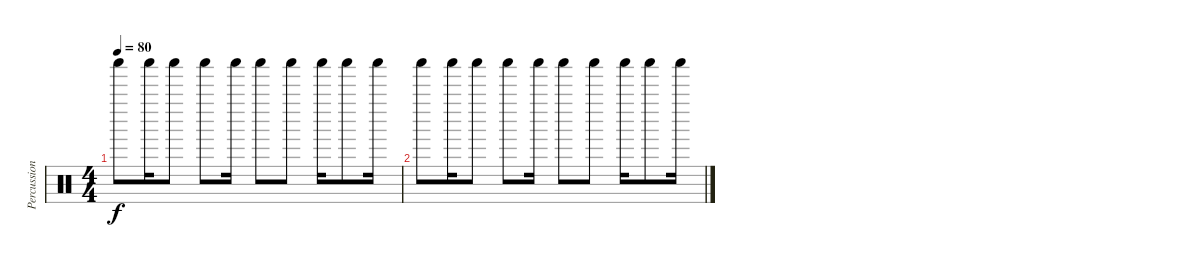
\track ("Percussion" "Percussion") {instrument percussion}
\staff {score}
\articulation defaults
\ts (4 4)
\tempo 80
\clef neutral
\ks c "Shaker (hit)".8{dy f} "Shaker (hit)".16 "Shaker (hit)".8 "Shaker (hit)".8 "Shaker (hit)".16 "Shaker (hit)".8 "Shaker (hit)".8 "Shaker (hit)".16 "Shaker (hit)".8 "Shaker (hit)".16
|
"Shaker (hit)".8 "Shaker (hit)".16 "Shaker (hit)".8 "Shaker (hit)".8 "Shaker (hit)".16 "Shaker (hit)".8 "Shaker (hit)".8 "Shaker (hit)".16 "Shaker (hit)".8 "Shaker (hit)".16
